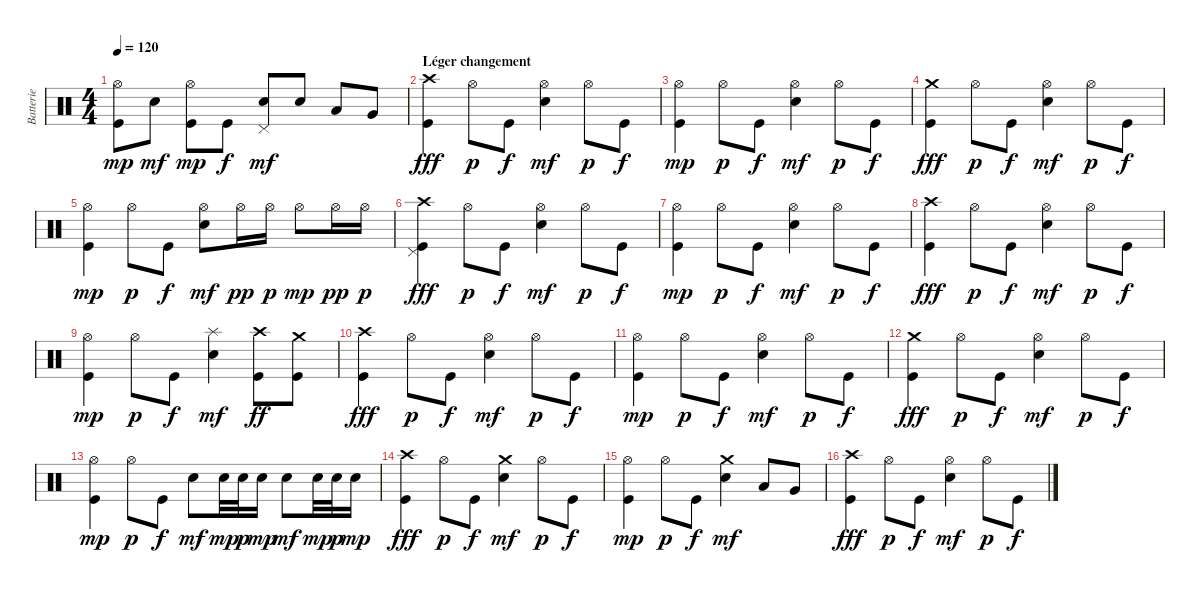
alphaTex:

\track ("Batterie" "Batterie") {instrument percussion}
\staff {score}
\articulation defaults
\ts (4 4)
\tempo 120
\clef neutral
\ks c
("Hi-Hat (open)" "Kick (hit)").8{dy mp} "Electric Snare (hit)".8{dy mf} ("Hi-Hat (open)" "Kick (hit)").8{dy mp} "Kick (hit)".8{dy f} ("Pedal Hi-Hat (hit)" "Electric Snare (hit)").8{dy mf} "Electric Snare (hit)".8 "Low Tom (hit)".8 "Very Low Tom (hit)".8 |
\section ("" "Léger changement")
("Crash high (hit)" "Kick (hit)").4{dy fff} "Hi-Hat (open)".8{dy p} "Kick (hit)".8{dy f} ("Hi-Hat (open)" "Electric Snare (hit)").4{dy mf} "Hi-Hat (open)".8{dy p} "Kick (hit)".8{dy f} |
("Hi-Hat (open)" "Kick (hit)").4{dy mp} "Hi-Hat (open)".8{dy p} "Kick (hit)".8{dy f} ("Hi-Hat (open)" "Electric Snare (hit)").4{dy mf} "Hi-Hat (open)".8{dy p} "Kick (hit)".8{dy f} |
("Crash medium (hit)" "Kick (hit)").4{dy fff} "Hi-Hat (open)".8{dy p} "Kick (hit)".8{dy f} ("Hi-Hat (open)" "Electric Snare (hit)").4{dy mf} "Hi-Hat (open)".8{dy p} "Kick (hit)".8{dy f} |
("Hi-Hat (open)" "Kick (hit)").4{dy mp} "Hi-Hat (open)".8{dy p} "Kick (hit)".8{dy f} ("Hi-Hat (open)" "Electric Snare (hit)").8{dy mf} "Hi-Hat (open)".16{dy pp} "Hi-Hat (open)".16{dy p} "Hi-Hat (open)".8{dy mp} "Hi-Hat (open)".16{dy pp} "Hi-Hat (open)".16{dy p} |
("Crash high (hit)" "Pedal Hi-Hat (hit)" "Kick (hit)").4{dy fff} "Hi-Hat (open)".8{dy p} "Kick (hit)".8{dy f} ("Hi-Hat (open)" "Electric Snare (hit)").4{dy mf} "Hi-Hat (open)".8{dy p} "Kick (hit)".8{dy f} |
("Hi-Hat (open)" "Kick (hit)").4{dy mp} "Hi-Hat (open)".8{dy p} "Kick (hit)".8{dy f} ("Hi-Hat (open)" "Electric Snare (hit)").4{dy mf} "Hi-Hat (open)".8{dy p} "Kick (hit)".8{dy f} |
("Crash high (hit)" "Kick (hit)").4{dy fff} "Hi-Hat (open)".8{dy p} "Kick (hit)".8{dy f} ("Hi-Hat (open)" "Electric Snare (hit)").4{dy mf} "Hi-Hat (open)".8{dy p} "Kick (hit)".8{dy f} |
("Hi-Hat (open)" "Kick (hit)").4{dy mp} "Hi-Hat (open)".8{dy p} "Kick (hit)".8{dy f} ("Splash (hit)" "Electric Snare (hit)").4{dy mf} ("Crash high (hit)" "Kick (hit)").8{dy ff} ("Crash medium (hit)" "Kick (hit)").8 |
("Crash high (hit)" "Kick (hit)").4{dy fff} "Hi-Hat (open)".8{dy p} "Kick (hit)".8{dy f} ("Hi-Hat (open)" "Electric Snare (hit)").4{dy mf} "Hi-Hat (open)".8{dy p} "Kick (hit)".8{dy f} |
("Hi-Hat (open)" "Kick (hit)").4{dy mp} "Hi-Hat (open)".8{dy p} "Kick (hit)".8{dy f} ("Hi-Hat (open)" "Electric Snare (hit)").4{dy mf} "Hi-Hat (open)".8{dy p} "Kick (hit)".8{dy f} |
("Crash medium (hit)" "Kick (hit)").4{dy fff} "Hi-Hat (open)".8{dy p} "Kick (hit)".8{dy f} ("Hi-Hat (open)" "Electric Snare (hit)").4{dy mf} "Hi-Hat (open)".8{dy p} "Kick (hit)".8{dy f} |
("Hi-Hat (open)" "Kick (hit)").4{dy mp} "Hi-Hat (open)".8{dy p} "Kick (hit)".8{dy f} "Electric Snare (hit)".8{dy mf} "Electric Snare (hit)".32{dy mp} "Electric Snare (hit)".32{dy p} "Electric Snare (hit)".16{dy mp} "Electric Snare (hit)".8{dy mf} "Electric Snare (hit)".32{dy mp} "Electric Snare (hit)".32{dy p} "Electric Snare (hit)".16{dy mp} |
("Crash high (hit)" "Kick (hit)").4{dy fff} "Hi-Hat (open)".8{dy p} "Kick (hit)".8{dy f} ("Crash medium (hit)" "Electric Snare (hit)").4{dy mf} "Hi-Hat (open)".8{dy p} "Kick (hit)".8{dy f} |
("Hi-Hat (open)" "Kick (hit)").4{dy mp} "Hi-Hat (open)".8{dy p} "Kick (hit)".8{dy f} ("Crash medium (hit)" "Electric Snare (hit)").4{dy mf} "Low Tom (hit)".8 "Very Low Tom (hit)".8 |
("Crash high (hit)" "Kick (hit)").4{dy fff} "Hi-Hat (open)".8{dy p} "Kick (hit)".8{dy f} ("Hi-Hat (open)" "Electric Snare (hit)").4{dy mf} "Hi-Hat (open)".8{dy p} "Kick (hit)".8{dy f}
